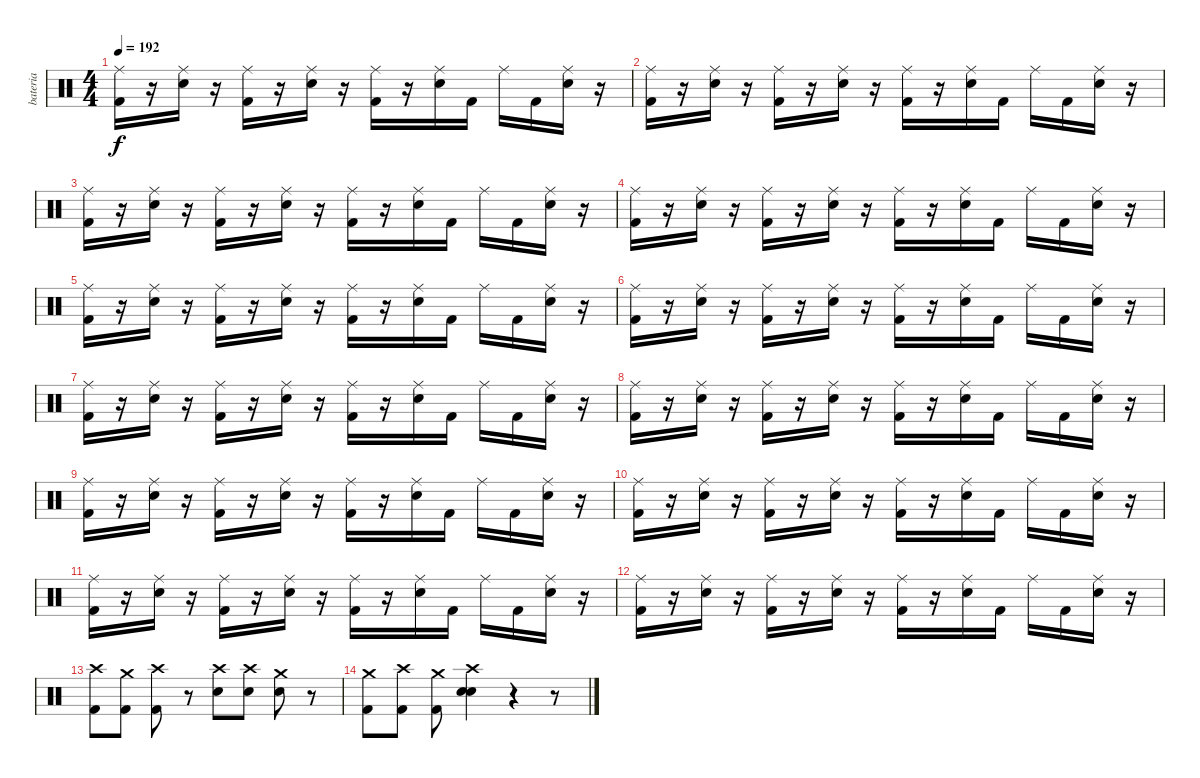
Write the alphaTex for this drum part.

\track ("bateria" "bateria") {instrument percussion}
\staff {score}
\articulation defaults
\ts (4 4)
\tempo 192
\clef neutral
\ks c
("Ride (middle)" "Kick (hit) 2").16{dy f} r.16 ("Ride (middle)" "Snare (hit) 2").16 r.16 ("Ride (middle)" "Kick (hit) 2").16 r.16 ("Ride (middle)" "Snare (hit) 2").16 r.16 ("Ride (middle)" "Kick (hit) 2").16 r.16 ("Ride (middle)" "Snare (hit) 2").16 "Kick (hit) 2".16 "Ride (middle)".16 "Kick (hit) 2".16 ("Ride (middle)" "Snare (hit) 2").16 r.16 |
("Ride (middle)" "Kick (hit) 2").16 r.16 ("Ride (middle)" "Snare (hit) 2").16 r.16 ("Ride (middle)" "Kick (hit) 2").16 r.16 ("Ride (middle)" "Snare (hit) 2").16 r.16 ("Ride (middle)" "Kick (hit) 2").16 r.16 ("Ride (middle)" "Snare (hit) 2").16 "Kick (hit) 2".16 "Ride (middle)".16 "Kick (hit) 2".16 ("Ride (middle)" "Snare (hit) 2").16 r.16 |
("Ride (middle)" "Kick (hit) 2").16 r.16 ("Ride (middle)" "Snare (hit) 2").16 r.16 ("Ride (middle)" "Kick (hit) 2").16 r.16 ("Ride (middle)" "Snare (hit) 2").16 r.16 ("Ride (middle)" "Kick (hit) 2").16 r.16 ("Ride (middle)" "Snare (hit) 2").16 "Kick (hit) 2".16 "Ride (middle)".16 "Kick (hit) 2".16 ("Ride (middle)" "Snare (hit) 2").16 r.16 |
("Ride (middle)" "Kick (hit) 2").16 r.16 ("Ride (middle)" "Snare (hit) 2").16 r.16 ("Ride (middle)" "Kick (hit) 2").16 r.16 ("Ride (middle)" "Snare (hit) 2").16 r.16 ("Ride (middle)" "Kick (hit) 2").16 r.16 ("Ride (middle)" "Snare (hit) 2").16 "Kick (hit) 2".16 "Ride (middle)".16 "Kick (hit) 2".16 ("Ride (middle)" "Snare (hit) 2").16 r.16 |
("Ride (middle)" "Kick (hit) 2").16 r.16 ("Ride (middle)" "Snare (hit) 2").16 r.16 ("Ride (middle)" "Kick (hit) 2").16 r.16 ("Ride (middle)" "Snare (hit) 2").16 r.16 ("Ride (middle)" "Kick (hit) 2").16 r.16 ("Ride (middle)" "Snare (hit) 2").16 "Kick (hit) 2".16 "Ride (middle)".16 "Kick (hit) 2".16 ("Ride (middle)" "Snare (hit) 2").16 r.16 |
("Ride (middle)" "Kick (hit) 2").16 r.16 ("Ride (middle)" "Snare (hit) 2").16 r.16 ("Ride (middle)" "Kick (hit) 2").16 r.16 ("Ride (middle)" "Snare (hit) 2").16 r.16 ("Ride (middle)" "Kick (hit) 2").16 r.16 ("Ride (middle)" "Snare (hit) 2").16 "Kick (hit) 2".16 "Ride (middle)".16 "Kick (hit) 2".16 ("Ride (middle)" "Snare (hit) 2").16 r.16 |
("Ride (middle)" "Kick (hit) 2").16 r.16 ("Ride (middle)" "Snare (hit) 2").16 r.16 ("Ride (middle)" "Kick (hit) 2").16 r.16 ("Ride (middle)" "Snare (hit) 2").16 r.16 ("Ride (middle)" "Kick (hit) 2").16 r.16 ("Ride (middle)" "Snare (hit) 2").16 "Kick (hit) 2".16 "Ride (middle)".16 "Kick (hit) 2".16 ("Ride (middle)" "Snare (hit) 2").16 r.16 |
("Ride (middle)" "Kick (hit) 2").16 r.16 ("Ride (middle)" "Snare (hit) 2").16 r.16 ("Ride (middle)" "Kick (hit) 2").16 r.16 ("Ride (middle)" "Snare (hit) 2").16 r.16 ("Ride (middle)" "Kick (hit) 2").16 r.16 ("Ride (middle)" "Snare (hit) 2").16 "Kick (hit) 2".16 "Ride (middle)".16 "Kick (hit) 2".16 ("Ride (middle)" "Snare (hit) 2").16 r.16 |
("Ride (middle)" "Kick (hit) 2").16 r.16 ("Ride (middle)" "Snare (hit) 2").16 r.16 ("Ride (middle)" "Kick (hit) 2").16 r.16 ("Ride (middle)" "Snare (hit) 2").16 r.16 ("Ride (middle)" "Kick (hit) 2").16 r.16 ("Ride (middle)" "Snare (hit) 2").16 "Kick (hit) 2".16 "Ride (middle)".16 "Kick (hit) 2".16 ("Ride (middle)" "Snare (hit) 2").16 r.16 |
("Ride (middle)" "Kick (hit) 2").16 r.16 ("Ride (middle)" "Snare (hit) 2").16 r.16 ("Ride (middle)" "Kick (hit) 2").16 r.16 ("Ride (middle)" "Snare (hit) 2").16 r.16 ("Ride (middle)" "Kick (hit) 2").16 r.16 ("Ride (middle)" "Snare (hit) 2").16 "Kick (hit) 2".16 "Ride (middle)".16 "Kick (hit) 2".16 ("Ride (middle)" "Snare (hit) 2").16 r.16 |
("Ride (middle)" "Kick (hit) 2").16 r.16 ("Ride (middle)" "Snare (hit) 2").16 r.16 ("Ride (middle)" "Kick (hit) 2").16 r.16 ("Ride (middle)" "Snare (hit) 2").16 r.16 ("Ride (middle)" "Kick (hit) 2").16 r.16 ("Ride (middle)" "Snare (hit) 2").16 "Kick (hit) 2".16 "Ride (middle)".16 "Kick (hit) 2".16 ("Ride (middle)" "Snare (hit) 2").16 r.16 |
("Ride (middle)" "Kick (hit) 2").16 r.16 ("Ride (middle)" "Snare (hit) 2").16 r.16 ("Ride (middle)" "Kick (hit) 2").16 r.16 ("Ride (middle)" "Snare (hit) 2").16 r.16 ("Ride (middle)" "Kick (hit) 2").16 r.16 ("Ride (middle)" "Snare (hit) 2").16 "Kick (hit) 2".16 "Ride (middle)".16 "Kick (hit) 2".16 ("Ride (middle)" "Snare (hit) 2").16 r.16 |
("Crash high (hit)" "Kick (hit) 2").8 ("Crash medium (hit)" "Kick (hit) 2").8 ("Crash high (hit)" "Kick (hit) 2").8 r.8 ("Crash high (hit)" "Snare (hit) 2").8 ("Crash high (hit)" "Snare (hit) 2").8 ("Crash medium (hit)" "Snare (hit) 2").8 r.8 |
("Crash medium (hit)" "Kick (hit) 2").8 ("Crash high (hit)" "Kick (hit) 2").8 ("Crash medium (hit)" "Kick (hit) 2").8 ("Snare (hit) 2" "Crash high (hit)" "Electric Snare (hit)").4 r.4 r.8
